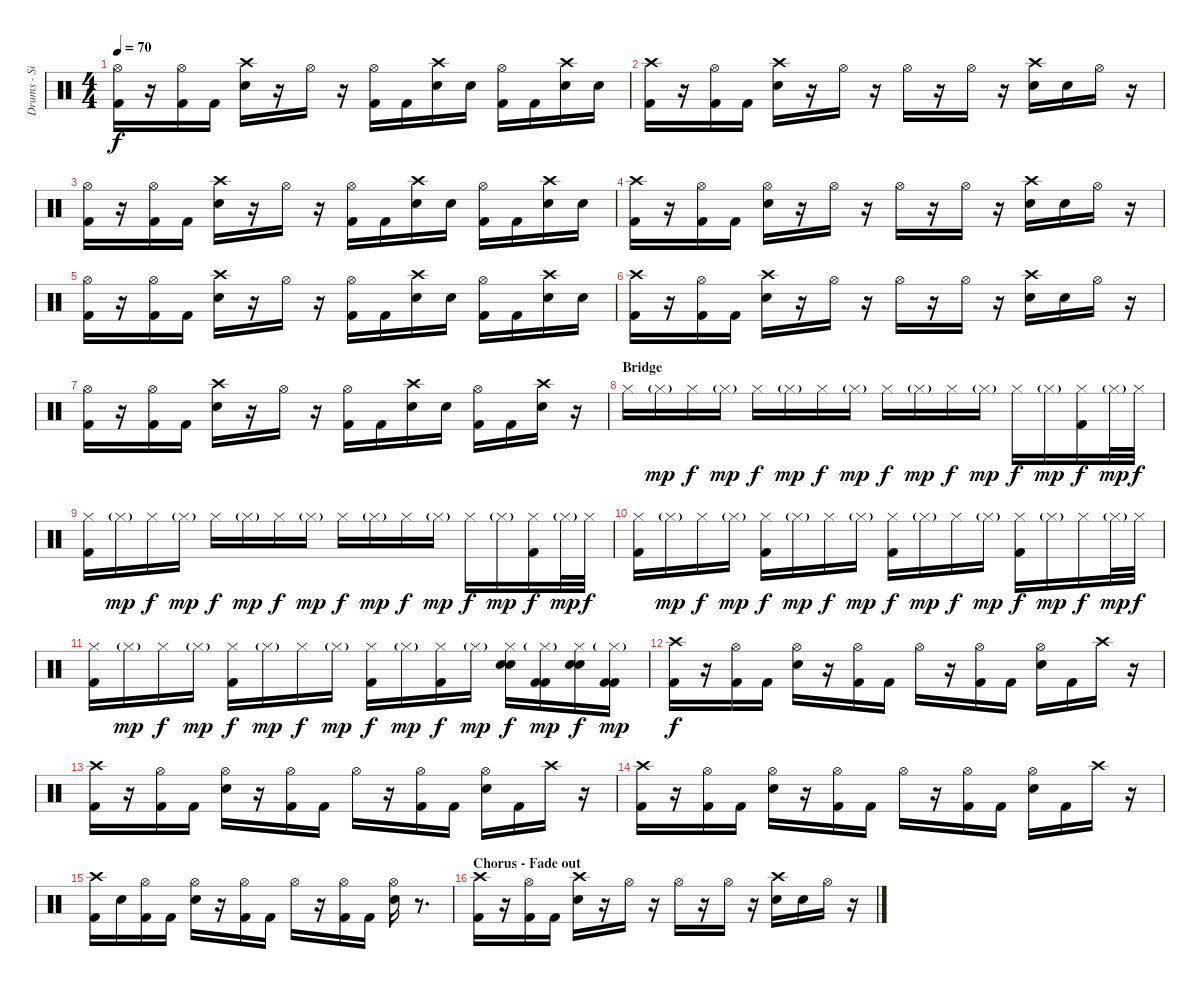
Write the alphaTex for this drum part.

\track ("Drums - Si" "Drums - Si") {instrument percussion}
\staff {score}
\articulation defaults
\ts (4 4)
\tempo 70
\clef neutral
\ks c
("Hi-Hat (open)" "Kick (hit) 2").16{dy f} r.16 ("Hi-Hat (open)" "Kick (hit) 2").16 "Kick (hit) 2".16 ("Crash high (hit)" "Snare (hit) 2").16 r.16 "Hi-Hat (open)".16 r.16 ("Hi-Hat (open)" "Kick (hit) 2").16 "Kick (hit) 2".16 ("Crash high (hit)" "Snare (hit) 2").16 "Snare (hit) 2".16 ("Hi-Hat (open)" "Kick (hit) 2").16 "Kick (hit) 2".16 ("Crash high (hit)" "Snare (hit) 2").16 "Snare (hit) 2".16 |
("Crash high (hit)" "Kick (hit) 2").16 r.16 ("Hi-Hat (open)" "Kick (hit) 2").16 "Kick (hit) 2".16 ("Crash high (hit)" "Snare (hit) 2").16 r.16 "Hi-Hat (open)".16 r.16 "Hi-Hat (open)".16 r.16 "Hi-Hat (open)".16 r.16 ("Crash high (hit)" "Snare (hit) 2").16 "Snare (hit) 2".16 "Hi-Hat (open)".16 r.16 |
("Hi-Hat (open)" "Kick (hit) 2").16 r.16 ("Hi-Hat (open)" "Kick (hit) 2").16 "Kick (hit) 2".16 ("Crash high (hit)" "Snare (hit) 2").16 r.16 "Hi-Hat (open)".16 r.16 ("Hi-Hat (open)" "Kick (hit) 2").16 "Kick (hit) 2".16 ("Crash high (hit)" "Snare (hit) 2").16 "Snare (hit) 2".16 ("Hi-Hat (open)" "Kick (hit) 2").16 "Kick (hit) 2".16 ("Crash high (hit)" "Snare (hit) 2").16 "Snare (hit) 2".16 |
("Crash high (hit)" "Kick (hit) 2").16 r.16 ("Hi-Hat (open)" "Kick (hit) 2").16 "Kick (hit) 2".16 ("Hi-Hat (open)" "Snare (hit) 2").16 r.16 "Hi-Hat (open)".16 r.16 "Hi-Hat (open)".16 r.16 "Hi-Hat (open)".16 r.16 ("Crash high (hit)" "Snare (hit) 2").16 "Snare (hit) 2".16 "Hi-Hat (open)".16 r.16 |
("Hi-Hat (open)" "Kick (hit) 2").16 r.16 ("Hi-Hat (open)" "Kick (hit) 2").16 "Kick (hit) 2".16 ("Crash high (hit)" "Snare (hit) 2").16 r.16 "Hi-Hat (open)".16 r.16 ("Hi-Hat (open)" "Kick (hit) 2").16 "Kick (hit) 2".16 ("Crash high (hit)" "Snare (hit) 2").16 "Snare (hit) 2".16 ("Hi-Hat (open)" "Kick (hit) 2").16 "Kick (hit) 2".16 ("Crash high (hit)" "Snare (hit) 2").16 "Snare (hit) 2".16 |
("Crash high (hit)" "Kick (hit) 2").16 r.16 ("Hi-Hat (open)" "Kick (hit) 2").16 "Kick (hit) 2".16 ("Crash high (hit)" "Snare (hit) 2").16 r.16 "Hi-Hat (open)".16 r.16 "Hi-Hat (open)".16 r.16 "Hi-Hat (open)".16 r.16 ("Crash high (hit)" "Snare (hit) 2").16 "Snare (hit) 2".16 "Hi-Hat (open)".16 r.16 |
("Hi-Hat (open)" "Kick (hit) 2").16 r.16 ("Hi-Hat (open)" "Kick (hit) 2").16 "Kick (hit) 2".16 ("Crash high (hit)" "Snare (hit) 2").16 r.16 "Hi-Hat (open)".16 r.16 ("Hi-Hat (open)" "Kick (hit) 2").16 "Kick (hit) 2".16 ("Crash high (hit)" "Snare (hit) 2").16 "Snare (hit) 2".16 ("Hi-Hat (open)" "Kick (hit) 2").16 "Kick (hit) 2".16 ("Crash high (hit)" "Snare (hit) 2").16 r.16 |
\section ("" "Bridge")
"Hi-Hat (closed)".16 "Hi-Hat (closed)"{g}.16{dy mp} "Hi-Hat (closed)".16{dy f} "Hi-Hat (closed)"{g}.16{dy mp} "Hi-Hat (closed)".16{dy f} "Hi-Hat (closed)"{g}.16{dy mp} "Hi-Hat (closed)".16{dy f} "Hi-Hat (closed)"{g}.16{dy mp} "Hi-Hat (closed)".16{dy f} "Hi-Hat (closed)"{g}.16{dy mp} "Hi-Hat (closed)".16{dy f} "Hi-Hat (closed)"{g}.16{dy mp} "Hi-Hat (closed)".16{dy f} "Hi-Hat (closed)"{g}.16{dy mp} ("Hi-Hat (closed)" "Kick (hit) 2").16{dy f} "Hi-Hat (closed)"{g}.32{dy mp} "Hi-Hat (closed)".32{dy f} |
("Hi-Hat (closed)" "Kick (hit) 2").16 "Hi-Hat (closed)"{g}.16{dy mp} "Hi-Hat (closed)".16{dy f} "Hi-Hat (closed)"{g}.16{dy mp} "Hi-Hat (closed)".16{dy f} "Hi-Hat (closed)"{g}.16{dy mp} "Hi-Hat (closed)".16{dy f} "Hi-Hat (closed)"{g}.16{dy mp} "Hi-Hat (closed)".16{dy f} "Hi-Hat (closed)"{g}.16{dy mp} "Hi-Hat (closed)".16{dy f} "Hi-Hat (closed)"{g}.16{dy mp} "Hi-Hat (closed)".16{dy f} "Hi-Hat (closed)"{g}.16{dy mp} ("Hi-Hat (closed)" "Kick (hit) 2").16{dy f} "Hi-Hat (closed)"{g}.32{dy mp} "Hi-Hat (closed)".32{dy f} |
("Hi-Hat (closed)" "Kick (hit) 2").16 "Hi-Hat (closed)"{g}.16{dy mp} "Hi-Hat (closed)".16{dy f} "Hi-Hat (closed)"{g}.16{dy mp} ("Hi-Hat (closed)" "Kick (hit) 2").16{dy f} "Hi-Hat (closed)"{g}.16{dy mp} "Hi-Hat (closed)".16{dy f} "Hi-Hat (closed)"{g}.16{dy mp} ("Hi-Hat (closed)" "Kick (hit) 2").16{dy f} "Hi-Hat (closed)"{g}.16{dy mp} "Hi-Hat (closed)".16{dy f} "Hi-Hat (closed)"{g}.16{dy mp} ("Hi-Hat (closed)" "Kick (hit) 2").16{dy f} "Hi-Hat (closed)"{g}.16{dy mp} "Hi-Hat (closed)".16{dy f} "Hi-Hat (closed)"{g}.32{dy mp} "Hi-Hat (closed)".32{dy f} |
("Hi-Hat (closed)" "Kick (hit) 2").16 "Hi-Hat (closed)"{g}.16{dy mp} "Hi-Hat (closed)".16{dy f} "Hi-Hat (closed)"{g}.16{dy mp} ("Hi-Hat (closed)" "Kick (hit) 2").16{dy f} "Hi-Hat (closed)"{g}.16{dy mp} "Hi-Hat (closed)".16{dy f} "Hi-Hat (closed)"{g}.16{dy mp} ("Hi-Hat (closed)" "Kick (hit) 2").16{dy f} "Hi-Hat (closed)"{g}.16{dy mp} ("Hi-Hat (closed)" "Kick (hit) 2").16{dy f} "Hi-Hat (closed)"{g}.16{dy mp} ("Hi-Hat (closed)" "Snare (hit) 2" "Snare (hit) 2").16{dy f} ("Hi-Hat (closed)"{g} "Kick (hit) 2" "Kick (hit) 2").16{dy mp} ("Hi-Hat (closed)" "Snare (hit) 2" "Snare (hit) 2").16{dy f} ("Hi-Hat (closed)"{g} "Kick (hit) 2" "Kick (hit) 2").16{dy mp} |
("Crash high (hit)" "Kick (hit) 2").16{dy f} r.16 ("Hi-Hat (open)" "Kick (hit) 2").16 "Kick (hit) 2".16 ("Hi-Hat (open)" "Snare (hit) 2").16 r.16 ("Hi-Hat (open)" "Kick (hit) 2").16 "Kick (hit) 2".16 "Hi-Hat (open)".16 r.16 ("Hi-Hat (open)" "Kick (hit) 2").16 "Kick (hit) 2".16 ("Hi-Hat (open)" "Snare (hit) 2").16 "Kick (hit) 2".16 "Crash high (hit)".16 r.16 |
("Crash high (hit)" "Kick (hit) 2").16 r.16 ("Hi-Hat (open)" "Kick (hit) 2").16 "Kick (hit) 2".16 ("Hi-Hat (open)" "Snare (hit) 2").16 r.16 ("Hi-Hat (open)" "Kick (hit) 2").16 "Kick (hit) 2".16 "Hi-Hat (open)".16 r.16 ("Hi-Hat (open)" "Kick (hit) 2").16 "Kick (hit) 2".16 ("Hi-Hat (open)" "Snare (hit) 2").16 "Kick (hit) 2".16 "Crash high (hit)".16 r.16 |
("Crash high (hit)" "Kick (hit) 2").16 r.16 ("Hi-Hat (open)" "Kick (hit) 2").16 "Kick (hit) 2".16 ("Hi-Hat (open)" "Snare (hit) 2").16 r.16 ("Hi-Hat (open)" "Kick (hit) 2").16 "Kick (hit) 2".16 "Hi-Hat (open)".16 r.16 ("Hi-Hat (open)" "Kick (hit) 2").16 "Kick (hit) 2".16 ("Hi-Hat (open)" "Snare (hit) 2").16 "Kick (hit) 2".16 "Crash high (hit)".16 r.16 |
("Crash high (hit)" "Kick (hit) 2").16 "Snare (hit) 2".16 ("Hi-Hat (open)" "Kick (hit) 2").16 "Kick (hit) 2".16 ("Hi-Hat (open)" "Snare (hit) 2").16 r.16 ("Hi-Hat (open)" "Kick (hit) 2").16 "Kick (hit) 2".16 "Hi-Hat (open)".16 r.16 ("Hi-Hat (open)" "Kick (hit) 2").16 "Kick (hit) 2".16 ("Hi-Hat (open)" "Snare (hit) 2").16 r.8{d} |
\section ("" "Chorus - Fade out")
("Crash high (hit)" "Kick (hit) 2").16 r.16 ("Hi-Hat (open)" "Kick (hit) 2").16 "Kick (hit) 2".16 ("Crash high (hit)" "Snare (hit) 2").16 r.16 "Hi-Hat (open)".16 r.16 "Hi-Hat (open)".16 r.16 "Hi-Hat (open)".16 r.16 ("Crash high (hit)" "Snare (hit) 2").16 "Snare (hit) 2".16 "Hi-Hat (open)".16 r.16
